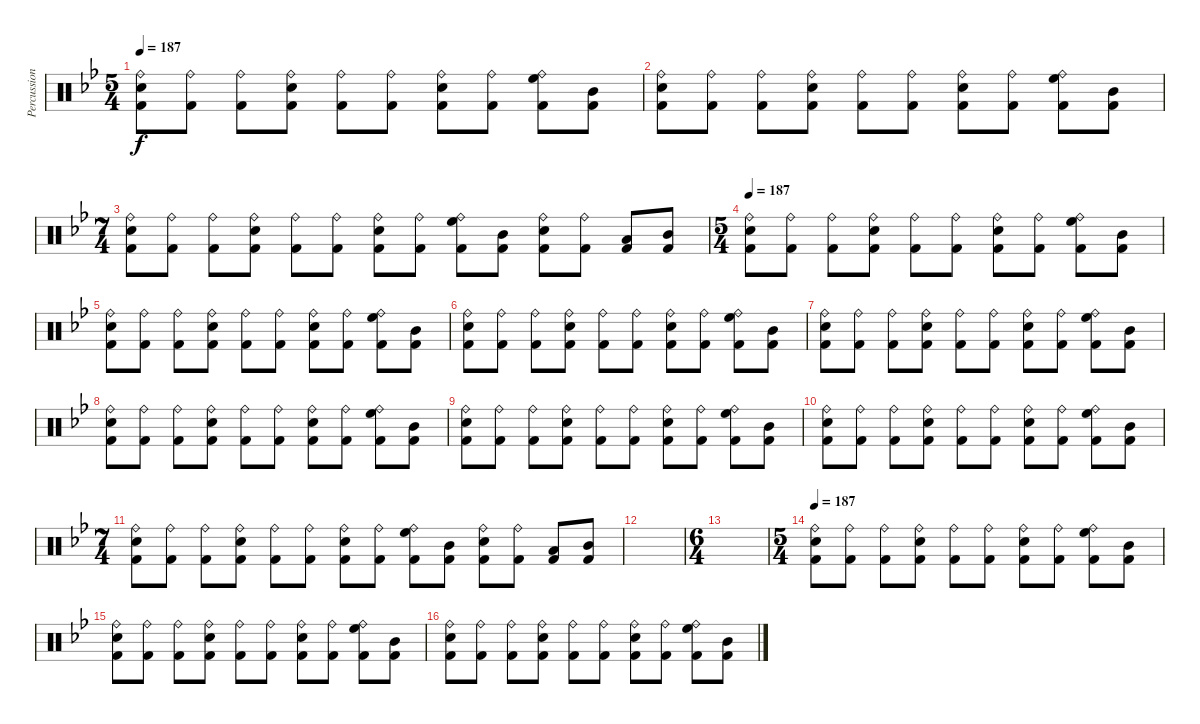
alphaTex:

\track ("Percussion" "Percussion") {instrument percussion}
\staff {score}
\articulation defaults
\ts (5 4)
\tempo 187
\clef neutral
\ks bb
("Ride (bell)" "Snare (hit) 2" "Kick (hit) 2").8{dy f} ("Ride (bell)" "Kick (hit) 2").8 ("Ride (bell)" "Kick (hit) 2").8 ("Ride (bell)" "Snare (hit) 2" "Kick (hit) 2").8 ("Ride (bell)" "Kick (hit) 2").8 ("Ride (bell)" "Kick (hit) 2").8 ("Ride (bell)" "Snare (hit) 2" "Kick (hit) 2").8 ("Ride (bell)" "Kick (hit) 2").8 ("Ride (bell)" "High Floor Tom (hit)" "Kick (hit) 2").8 ("Mid Tom (hit)" "Kick (hit) 2").8 |
("Ride (bell)" "Snare (hit) 2" "Kick (hit) 2").8 ("Ride (bell)" "Kick (hit) 2").8 ("Ride (bell)" "Kick (hit) 2").8 ("Ride (bell)" "Snare (hit) 2" "Kick (hit) 2").8 ("Ride (bell)" "Kick (hit) 2").8 ("Ride (bell)" "Kick (hit) 2").8 ("Ride (bell)" "Snare (hit) 2" "Kick (hit) 2").8 ("Ride (bell)" "Kick (hit) 2").8 ("Ride (bell)" "High Floor Tom (hit)" "Kick (hit) 2").8 ("Mid Tom (hit)" "Kick (hit) 2").8 |
\ts (7 4)
("Ride (bell)" "Snare (hit) 2" "Kick (hit) 2").8 ("Ride (bell)" "Kick (hit) 2").8 ("Ride (bell)" "Kick (hit) 2").8 ("Ride (bell)" "Snare (hit) 2" "Kick (hit) 2").8 ("Ride (bell)" "Kick (hit) 2").8 ("Ride (bell)" "Kick (hit) 2").8 ("Ride (bell)" "Snare (hit) 2" "Kick (hit) 2").8 ("Ride (bell)" "Kick (hit) 2").8 ("Ride (bell)" "High Floor Tom (hit)" "Kick (hit) 2").8 ("Mid Tom (hit)" "Kick (hit) 2").8 ("Ride (bell)" "Snare (hit) 2" "Kick (hit) 2").8 ("Ride (bell)" "Kick (hit) 2").8 ("Low Tom (hit)" "Kick (hit) 2").8 ("Mid Tom (hit)" "Kick (hit) 2").8 |
\ts (5 4)
\tempo 187
("Ride (bell)" "Snare (hit) 2" "Kick (hit) 2").8 ("Ride (bell)" "Kick (hit) 2").8 ("Ride (bell)" "Kick (hit) 2").8 ("Ride (bell)" "Snare (hit) 2" "Kick (hit) 2").8 ("Ride (bell)" "Kick (hit) 2").8 ("Ride (bell)" "Kick (hit) 2").8 ("Ride (bell)" "Snare (hit) 2" "Kick (hit) 2").8 ("Ride (bell)" "Kick (hit) 2").8 ("Ride (bell)" "High Floor Tom (hit)" "Kick (hit) 2").8 ("Mid Tom (hit)" "Kick (hit) 2").8 |
("Ride (bell)" "Snare (hit) 2" "Kick (hit) 2").8 ("Ride (bell)" "Kick (hit) 2").8 ("Ride (bell)" "Kick (hit) 2").8 ("Ride (bell)" "Snare (hit) 2" "Kick (hit) 2").8 ("Ride (bell)" "Kick (hit) 2").8 ("Ride (bell)" "Kick (hit) 2").8 ("Ride (bell)" "Snare (hit) 2" "Kick (hit) 2").8 ("Ride (bell)" "Kick (hit) 2").8 ("Ride (bell)" "High Floor Tom (hit)" "Kick (hit) 2").8 ("Mid Tom (hit)" "Kick (hit) 2").8 |
("Ride (bell)" "Snare (hit) 2" "Kick (hit) 2").8 ("Ride (bell)" "Kick (hit) 2").8 ("Ride (bell)" "Kick (hit) 2").8 ("Ride (bell)" "Snare (hit) 2" "Kick (hit) 2").8 ("Ride (bell)" "Kick (hit) 2").8 ("Ride (bell)" "Kick (hit) 2").8 ("Ride (bell)" "Snare (hit) 2" "Kick (hit) 2").8 ("Ride (bell)" "Kick (hit) 2").8 ("Ride (bell)" "High Floor Tom (hit)" "Kick (hit) 2").8 ("Mid Tom (hit)" "Kick (hit) 2").8 |
("Ride (bell)" "Snare (hit) 2" "Kick (hit) 2").8 ("Ride (bell)" "Kick (hit) 2").8 ("Ride (bell)" "Kick (hit) 2").8 ("Ride (bell)" "Snare (hit) 2" "Kick (hit) 2").8 ("Ride (bell)" "Kick (hit) 2").8 ("Ride (bell)" "Kick (hit) 2").8 ("Ride (bell)" "Snare (hit) 2" "Kick (hit) 2").8 ("Ride (bell)" "Kick (hit) 2").8 ("Ride (bell)" "High Floor Tom (hit)" "Kick (hit) 2").8 ("Mid Tom (hit)" "Kick (hit) 2").8 |
("Ride (bell)" "Snare (hit) 2" "Kick (hit) 2").8 ("Ride (bell)" "Kick (hit) 2").8 ("Ride (bell)" "Kick (hit) 2").8 ("Ride (bell)" "Snare (hit) 2" "Kick (hit) 2").8 ("Ride (bell)" "Kick (hit) 2").8 ("Ride (bell)" "Kick (hit) 2").8 ("Ride (bell)" "Snare (hit) 2" "Kick (hit) 2").8 ("Ride (bell)" "Kick (hit) 2").8 ("Ride (bell)" "High Floor Tom (hit)" "Kick (hit) 2").8 ("Mid Tom (hit)" "Kick (hit) 2").8 |
("Ride (bell)" "Snare (hit) 2" "Kick (hit) 2").8 ("Ride (bell)" "Kick (hit) 2").8 ("Ride (bell)" "Kick (hit) 2").8 ("Ride (bell)" "Snare (hit) 2" "Kick (hit) 2").8 ("Ride (bell)" "Kick (hit) 2").8 ("Ride (bell)" "Kick (hit) 2").8 ("Ride (bell)" "Snare (hit) 2" "Kick (hit) 2").8 ("Ride (bell)" "Kick (hit) 2").8 ("Ride (bell)" "High Floor Tom (hit)" "Kick (hit) 2").8 ("Mid Tom (hit)" "Kick (hit) 2").8 |
("Ride (bell)" "Snare (hit) 2" "Kick (hit) 2").8 ("Ride (bell)" "Kick (hit) 2").8 ("Ride (bell)" "Kick (hit) 2").8 ("Ride (bell)" "Snare (hit) 2" "Kick (hit) 2").8 ("Ride (bell)" "Kick (hit) 2").8 ("Ride (bell)" "Kick (hit) 2").8 ("Ride (bell)" "Snare (hit) 2" "Kick (hit) 2").8 ("Ride (bell)" "Kick (hit) 2").8 ("Ride (bell)" "High Floor Tom (hit)" "Kick (hit) 2").8 ("Mid Tom (hit)" "Kick (hit) 2").8 |
\ts (7 4)
("Ride (bell)" "Snare (hit) 2" "Kick (hit) 2").8 ("Ride (bell)" "Kick (hit) 2").8 ("Ride (bell)" "Kick (hit) 2").8 ("Ride (bell)" "Snare (hit) 2" "Kick (hit) 2").8 ("Ride (bell)" "Kick (hit) 2").8 ("Ride (bell)" "Kick (hit) 2").8 ("Ride (bell)" "Snare (hit) 2" "Kick (hit) 2").8 ("Ride (bell)" "Kick (hit) 2").8 ("Ride (bell)" "High Floor Tom (hit)" "Kick (hit) 2").8 ("Mid Tom (hit)" "Kick (hit) 2").8 ("Ride (bell)" "Snare (hit) 2" "Kick (hit) 2").8 ("Ride (bell)" "Kick (hit) 2").8 ("Low Tom (hit)" "Kick (hit) 2").8 ("Mid Tom (hit)" "Kick (hit) 2").8 |
|
\ts (6 4)
|
\ts (5 4)
\tempo 187
("Ride (bell)" "Snare (hit) 2" "Kick (hit) 2").8 ("Ride (bell)" "Kick (hit) 2").8 ("Ride (bell)" "Kick (hit) 2").8 ("Ride (bell)" "Snare (hit) 2" "Kick (hit) 2").8 ("Ride (bell)" "Kick (hit) 2").8 ("Ride (bell)" "Kick (hit) 2").8 ("Ride (bell)" "Snare (hit) 2" "Kick (hit) 2").8 ("Ride (bell)" "Kick (hit) 2").8 ("Ride (bell)" "High Floor Tom (hit)" "Kick (hit) 2").8 ("Mid Tom (hit)" "Kick (hit) 2").8 |
("Ride (bell)" "Snare (hit) 2" "Kick (hit) 2").8 ("Ride (bell)" "Kick (hit) 2").8 ("Ride (bell)" "Kick (hit) 2").8 ("Ride (bell)" "Snare (hit) 2" "Kick (hit) 2").8 ("Ride (bell)" "Kick (hit) 2").8 ("Ride (bell)" "Kick (hit) 2").8 ("Ride (bell)" "Snare (hit) 2" "Kick (hit) 2").8 ("Ride (bell)" "Kick (hit) 2").8 ("Ride (bell)" "High Floor Tom (hit)" "Kick (hit) 2").8 ("Mid Tom (hit)" "Kick (hit) 2").8 |
("Ride (bell)" "Snare (hit) 2" "Kick (hit) 2").8 ("Ride (bell)" "Kick (hit) 2").8 ("Ride (bell)" "Kick (hit) 2").8 ("Ride (bell)" "Snare (hit) 2" "Kick (hit) 2").8 ("Ride (bell)" "Kick (hit) 2").8 ("Ride (bell)" "Kick (hit) 2").8 ("Ride (bell)" "Snare (hit) 2" "Kick (hit) 2").8 ("Ride (bell)" "Kick (hit) 2").8 ("Ride (bell)" "High Floor Tom (hit)" "Kick (hit) 2").8 ("Mid Tom (hit)" "Kick (hit) 2").8
